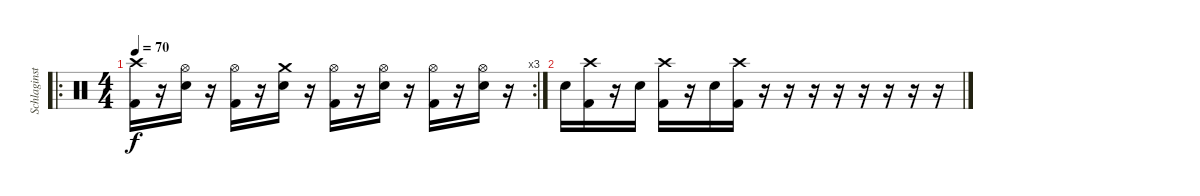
\track ("Schlaginstrumente - Auswahl" "Schlaginst") {instrument percussion}
\staff {score}
\articulation defaults
\ro
\rc 3
\ts (4 4)
\tempo 70
\clef neutral
\ks c
("Crash high (hit)" "Kick (hit) 2").16{dy f} r.16 ("Hi-Hat (open)" "Snare (hit) 2").16 r.16 ("Hi-Hat (open)" "Kick (hit) 2").16 r.16 ("Crash medium (hit)" "Snare (hit) 2").16 r.16 ("Hi-Hat (open)" "Kick (hit) 2").16 r.16 ("Hi-Hat (open)" "Snare (hit) 2").16 r.16 ("Hi-Hat (open)" "Kick (hit) 2").16 r.16 ("Hi-Hat (open)" "Snare (hit) 2").16 r.16 |
"Snare (hit) 2".16 ("Crash high (hit)" "Kick (hit) 2").16 r.16 "Snare (hit) 2".16 ("Crash high (hit)" "Kick (hit) 2").16 r.16 "Snare (hit) 2".16 ("Crash high (hit)" "Kick (hit) 2").16 r.16 r.16 r.16 r.16 r.16 r.16 r.16 r.16
